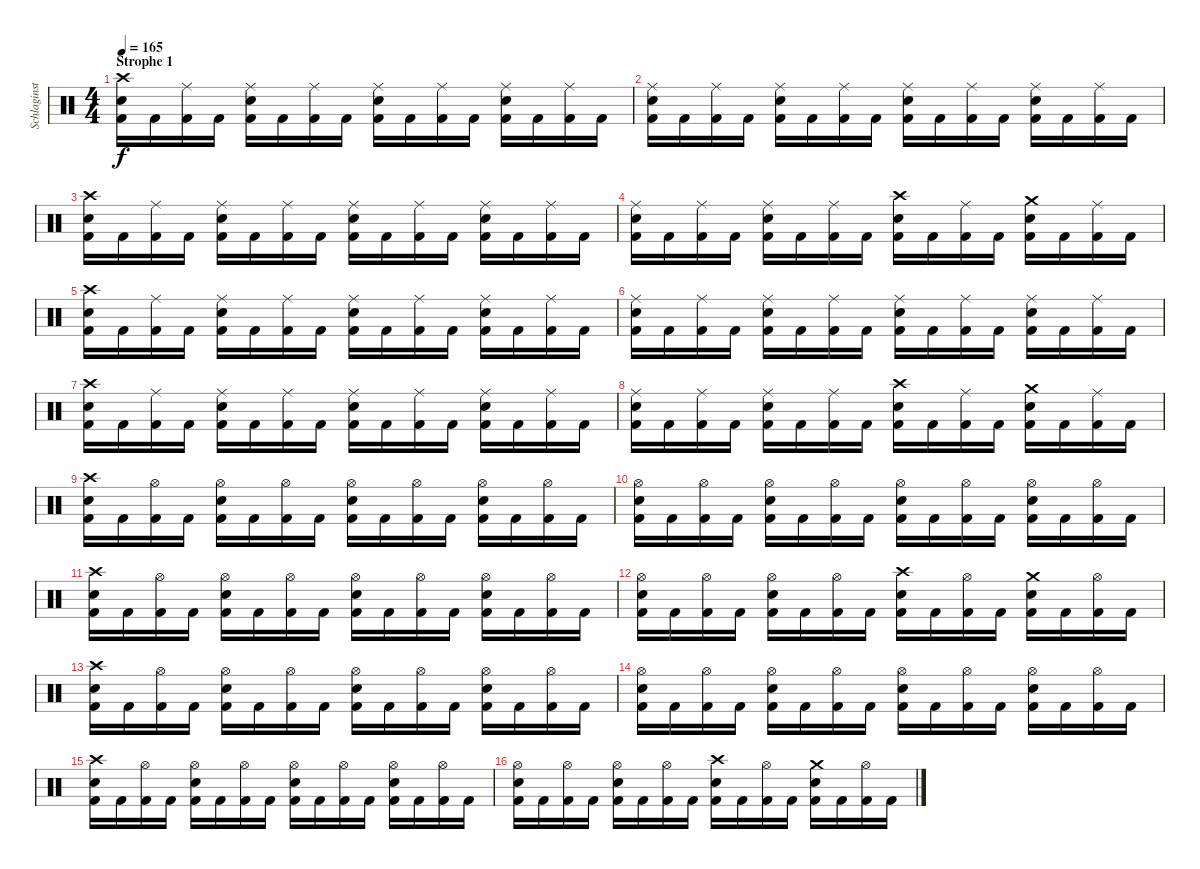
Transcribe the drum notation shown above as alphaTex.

\track ("Schlaginstrumente - Auswahl" "Schlaginst") {instrument percussion}
\staff {score}
\articulation defaults
\ts (4 4)
\section ("" "Strophe 1")
\tempo 165
\clef neutral
\ks c
("Crash high (hit)" "Electric Snare (hit)" "Kick (hit) 2").16{dy f} "Kick (hit) 2".16 ("Ride (middle)" "Kick (hit) 2").16 "Kick (hit) 2".16 ("Ride (middle)" "Electric Snare (hit)" "Kick (hit) 2").16 "Kick (hit) 2".16 ("Ride (middle)" "Kick (hit) 2").16 "Kick (hit) 2".16 ("Ride (middle)" "Electric Snare (hit)" "Kick (hit) 2").16 "Kick (hit) 2".16 ("Ride (middle)" "Kick (hit) 2").16 "Kick (hit) 2".16 ("Ride (middle)" "Electric Snare (hit)" "Kick (hit) 2").16 "Kick (hit) 2".16 ("Ride (middle)" "Kick (hit) 2").16 "Kick (hit) 2".16 |
("Ride (middle)" "Electric Snare (hit)" "Kick (hit) 2").16 "Kick (hit) 2".16 ("Ride (middle)" "Kick (hit) 2").16 "Kick (hit) 2".16 ("Ride (middle)" "Electric Snare (hit)" "Kick (hit) 2").16 "Kick (hit) 2".16 ("Ride (middle)" "Kick (hit) 2").16 "Kick (hit) 2".16 ("Ride (middle)" "Electric Snare (hit)" "Kick (hit) 2").16 "Kick (hit) 2".16 ("Ride (middle)" "Kick (hit) 2").16 "Kick (hit) 2".16 ("Ride (middle)" "Electric Snare (hit)" "Kick (hit) 2").16 "Kick (hit) 2".16 ("Ride (middle)" "Kick (hit) 2").16 "Kick (hit) 2".16 |
("Crash high (hit)" "Electric Snare (hit)" "Kick (hit) 2").16 "Kick (hit) 2".16 ("Ride (middle)" "Kick (hit) 2").16 "Kick (hit) 2".16 ("Ride (middle)" "Electric Snare (hit)" "Kick (hit) 2").16 "Kick (hit) 2".16 ("Ride (middle)" "Kick (hit) 2").16 "Kick (hit) 2".16 ("Ride (middle)" "Electric Snare (hit)" "Kick (hit) 2").16 "Kick (hit) 2".16 ("Ride (middle)" "Kick (hit) 2").16 "Kick (hit) 2".16 ("Ride (middle)" "Electric Snare (hit)" "Kick (hit) 2").16 "Kick (hit) 2".16 ("Ride (middle)" "Kick (hit) 2").16 "Kick (hit) 2".16 |
("Ride (middle)" "Electric Snare (hit)" "Kick (hit) 2").16 "Kick (hit) 2".16 ("Ride (middle)" "Kick (hit) 2").16 "Kick (hit) 2".16 ("Ride (middle)" "Electric Snare (hit)" "Kick (hit) 2").16 "Kick (hit) 2".16 ("Ride (middle)" "Kick (hit) 2").16 "Kick (hit) 2".16 ("Crash high (hit)" "Electric Snare (hit)" "Kick (hit) 2").16 "Kick (hit) 2".16 ("Ride (middle)" "Kick (hit) 2").16 "Kick (hit) 2".16 ("Crash medium (hit)" "Electric Snare (hit)" "Kick (hit) 2").16 "Kick (hit) 2".16 ("Ride (middle)" "Kick (hit) 2").16 "Kick (hit) 2".16 |
("Crash high (hit)" "Electric Snare (hit)" "Kick (hit) 2").16 "Kick (hit) 2".16 ("Ride (middle)" "Kick (hit) 2").16 "Kick (hit) 2".16 ("Ride (middle)" "Electric Snare (hit)" "Kick (hit) 2").16 "Kick (hit) 2".16 ("Ride (middle)" "Kick (hit) 2").16 "Kick (hit) 2".16 ("Ride (middle)" "Electric Snare (hit)" "Kick (hit) 2").16 "Kick (hit) 2".16 ("Ride (middle)" "Kick (hit) 2").16 "Kick (hit) 2".16 ("Ride (middle)" "Electric Snare (hit)" "Kick (hit) 2").16 "Kick (hit) 2".16 ("Ride (middle)" "Kick (hit) 2").16 "Kick (hit) 2".16 |
("Ride (middle)" "Electric Snare (hit)" "Kick (hit) 2").16 "Kick (hit) 2".16 ("Ride (middle)" "Kick (hit) 2").16 "Kick (hit) 2".16 ("Ride (middle)" "Electric Snare (hit)" "Kick (hit) 2").16 "Kick (hit) 2".16 ("Ride (middle)" "Kick (hit) 2").16 "Kick (hit) 2".16 ("Ride (middle)" "Electric Snare (hit)" "Kick (hit) 2").16 "Kick (hit) 2".16 ("Ride (middle)" "Kick (hit) 2").16 "Kick (hit) 2".16 ("Ride (middle)" "Electric Snare (hit)" "Kick (hit) 2").16 "Kick (hit) 2".16 ("Ride (middle)" "Kick (hit) 2").16 "Kick (hit) 2".16 |
("Crash high (hit)" "Electric Snare (hit)" "Kick (hit) 2").16 "Kick (hit) 2".16 ("Ride (middle)" "Kick (hit) 2").16 "Kick (hit) 2".16 ("Ride (middle)" "Electric Snare (hit)" "Kick (hit) 2").16 "Kick (hit) 2".16 ("Ride (middle)" "Kick (hit) 2").16 "Kick (hit) 2".16 ("Ride (middle)" "Electric Snare (hit)" "Kick (hit) 2").16 "Kick (hit) 2".16 ("Ride (middle)" "Kick (hit) 2").16 "Kick (hit) 2".16 ("Ride (middle)" "Electric Snare (hit)" "Kick (hit) 2").16 "Kick (hit) 2".16 ("Ride (middle)" "Kick (hit) 2").16 "Kick (hit) 2".16 |
("Ride (middle)" "Electric Snare (hit)" "Kick (hit) 2").16 "Kick (hit) 2".16 ("Ride (middle)" "Kick (hit) 2").16 "Kick (hit) 2".16 ("Ride (middle)" "Electric Snare (hit)" "Kick (hit) 2").16 "Kick (hit) 2".16 ("Ride (middle)" "Kick (hit) 2").16 "Kick (hit) 2".16 ("Crash high (hit)" "Electric Snare (hit)" "Kick (hit) 2").16 "Kick (hit) 2".16 ("Ride (middle)" "Kick (hit) 2").16 "Kick (hit) 2".16 ("Crash medium (hit)" "Electric Snare (hit)" "Kick (hit) 2").16 "Kick (hit) 2".16 ("Ride (middle)" "Kick (hit) 2").16 "Kick (hit) 2".16 |
("Crash high (hit)" "Electric Snare (hit)" "Kick (hit) 2").16 "Kick (hit) 2".16 ("Hi-Hat (open)" "Kick (hit) 2").16 "Kick (hit) 2".16 ("Hi-Hat (open)" "Electric Snare (hit)" "Kick (hit) 2").16 "Kick (hit) 2".16 ("Hi-Hat (open)" "Kick (hit) 2").16 "Kick (hit) 2".16 ("Hi-Hat (open)" "Electric Snare (hit)" "Kick (hit) 2").16 "Kick (hit) 2".16 ("Hi-Hat (open)" "Kick (hit) 2").16 "Kick (hit) 2".16 ("Hi-Hat (open)" "Electric Snare (hit)" "Kick (hit) 2").16 "Kick (hit) 2".16 ("Hi-Hat (open)" "Kick (hit) 2").16 "Kick (hit) 2".16 |
("Hi-Hat (open)" "Electric Snare (hit)" "Kick (hit) 2").16 "Kick (hit) 2".16 ("Hi-Hat (open)" "Kick (hit) 2").16 "Kick (hit) 2".16 ("Hi-Hat (open)" "Electric Snare (hit)" "Kick (hit) 2").16 "Kick (hit) 2".16 ("Hi-Hat (open)" "Kick (hit) 2").16 "Kick (hit) 2".16 ("Hi-Hat (open)" "Electric Snare (hit)" "Kick (hit) 2").16 "Kick (hit) 2".16 ("Hi-Hat (open)" "Kick (hit) 2").16 "Kick (hit) 2".16 ("Hi-Hat (open)" "Electric Snare (hit)" "Kick (hit) 2").16 "Kick (hit) 2".16 ("Hi-Hat (open)" "Kick (hit) 2").16 "Kick (hit) 2".16 |
("Crash high (hit)" "Electric Snare (hit)" "Kick (hit) 2").16 "Kick (hit) 2".16 ("Hi-Hat (open)" "Kick (hit) 2").16 "Kick (hit) 2".16 ("Hi-Hat (open)" "Electric Snare (hit)" "Kick (hit) 2").16 "Kick (hit) 2".16 ("Hi-Hat (open)" "Kick (hit) 2").16 "Kick (hit) 2".16 ("Hi-Hat (open)" "Electric Snare (hit)" "Kick (hit) 2").16 "Kick (hit) 2".16 ("Hi-Hat (open)" "Kick (hit) 2").16 "Kick (hit) 2".16 ("Hi-Hat (open)" "Electric Snare (hit)" "Kick (hit) 2").16 "Kick (hit) 2".16 ("Hi-Hat (open)" "Kick (hit) 2").16 "Kick (hit) 2".16 |
("Hi-Hat (open)" "Electric Snare (hit)" "Kick (hit) 2").16 "Kick (hit) 2".16 ("Hi-Hat (open)" "Kick (hit) 2").16 "Kick (hit) 2".16 ("Hi-Hat (open)" "Electric Snare (hit)" "Kick (hit) 2").16 "Kick (hit) 2".16 ("Hi-Hat (open)" "Kick (hit) 2").16 "Kick (hit) 2".16 ("Crash high (hit)" "Electric Snare (hit)" "Kick (hit) 2").16 "Kick (hit) 2".16 ("Hi-Hat (open)" "Kick (hit) 2").16 "Kick (hit) 2".16 ("Crash medium (hit)" "Electric Snare (hit)" "Kick (hit) 2").16 "Kick (hit) 2".16 ("Hi-Hat (open)" "Kick (hit) 2").16 "Kick (hit) 2".16 |
("Crash high (hit)" "Electric Snare (hit)" "Kick (hit) 2").16 "Kick (hit) 2".16 ("Hi-Hat (open)" "Kick (hit) 2").16 "Kick (hit) 2".16 ("Hi-Hat (open)" "Electric Snare (hit)" "Kick (hit) 2").16 "Kick (hit) 2".16 ("Hi-Hat (open)" "Kick (hit) 2").16 "Kick (hit) 2".16 ("Hi-Hat (open)" "Electric Snare (hit)" "Kick (hit) 2").16 "Kick (hit) 2".16 ("Hi-Hat (open)" "Kick (hit) 2").16 "Kick (hit) 2".16 ("Hi-Hat (open)" "Electric Snare (hit)" "Kick (hit) 2").16 "Kick (hit) 2".16 ("Hi-Hat (open)" "Kick (hit) 2").16 "Kick (hit) 2".16 |
("Hi-Hat (open)" "Electric Snare (hit)" "Kick (hit) 2").16 "Kick (hit) 2".16 ("Hi-Hat (open)" "Kick (hit) 2").16 "Kick (hit) 2".16 ("Hi-Hat (open)" "Electric Snare (hit)" "Kick (hit) 2").16 "Kick (hit) 2".16 ("Hi-Hat (open)" "Kick (hit) 2").16 "Kick (hit) 2".16 ("Hi-Hat (open)" "Electric Snare (hit)" "Kick (hit) 2").16 "Kick (hit) 2".16 ("Hi-Hat (open)" "Kick (hit) 2").16 "Kick (hit) 2".16 ("Hi-Hat (open)" "Electric Snare (hit)" "Kick (hit) 2").16 "Kick (hit) 2".16 ("Hi-Hat (open)" "Kick (hit) 2").16 "Kick (hit) 2".16 |
("Crash high (hit)" "Electric Snare (hit)" "Kick (hit) 2").16 "Kick (hit) 2".16 ("Hi-Hat (open)" "Kick (hit) 2").16 "Kick (hit) 2".16 ("Hi-Hat (open)" "Electric Snare (hit)" "Kick (hit) 2").16 "Kick (hit) 2".16 ("Hi-Hat (open)" "Kick (hit) 2").16 "Kick (hit) 2".16 ("Hi-Hat (open)" "Electric Snare (hit)" "Kick (hit) 2").16 "Kick (hit) 2".16 ("Hi-Hat (open)" "Kick (hit) 2").16 "Kick (hit) 2".16 ("Hi-Hat (open)" "Electric Snare (hit)" "Kick (hit) 2").16 "Kick (hit) 2".16 ("Hi-Hat (open)" "Kick (hit) 2").16 "Kick (hit) 2".16 |
("Hi-Hat (open)" "Electric Snare (hit)" "Kick (hit) 2").16 "Kick (hit) 2".16 ("Hi-Hat (open)" "Kick (hit) 2").16 "Kick (hit) 2".16 ("Hi-Hat (open)" "Electric Snare (hit)" "Kick (hit) 2").16 "Kick (hit) 2".16 ("Hi-Hat (open)" "Kick (hit) 2").16 "Kick (hit) 2".16 ("Crash high (hit)" "Electric Snare (hit)" "Kick (hit) 2").16 "Kick (hit) 2".16 ("Hi-Hat (open)" "Kick (hit) 2").16 "Kick (hit) 2".16 ("Crash medium (hit)" "Electric Snare (hit)" "Kick (hit) 2").16 "Kick (hit) 2".16 ("Hi-Hat (open)" "Kick (hit) 2").16 "Kick (hit) 2".16
